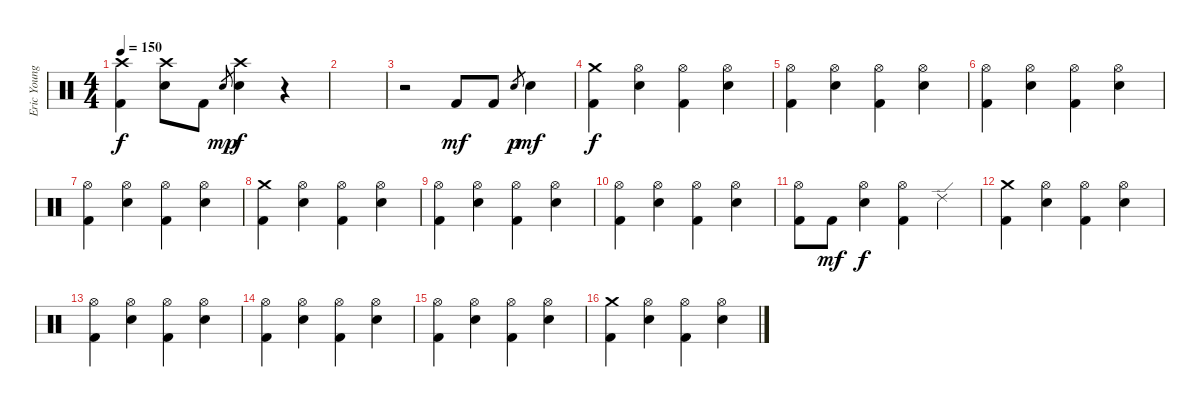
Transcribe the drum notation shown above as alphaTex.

\track ("Eric Young" "Eric Young") {instrument percussion}
\staff {score}
\articulation defaults
\ts (4 4)
\tempo 150
\clef neutral
\ks c
("Crash high (hit)" "Kick (hit) 2").4{dy f} ("Crash high (hit)" "Electric Snare (hit)").8 "Kick (hit) 2".8 "Electric Snare (hit)".8{gr dy mp} ("Crash high (hit)" "Electric Snare (hit)").4{dy f} r.4 |
|
r.2 "Kick (hit) 2".8{dy mf} "Kick (hit) 2".8 "Electric Snare (hit)".8{gr dy p} "Electric Snare (hit)".4{dy mf} |
("Crash medium (hit)" "Kick (hit) 2").4{dy f} ("Hi-Hat (open)" "Electric Snare (hit)").4 ("Hi-Hat (open)" "Kick (hit) 2").4 ("Hi-Hat (open)" "Electric Snare (hit)").4 |
("Hi-Hat (open)" "Kick (hit) 2").4 ("Hi-Hat (open)" "Electric Snare (hit)").4 ("Hi-Hat (open)" "Kick (hit) 2").4 ("Hi-Hat (open)" "Electric Snare (hit)").4 |
("Hi-Hat (open)" "Kick (hit) 2").4 ("Hi-Hat (open)" "Electric Snare (hit)").4 ("Hi-Hat (open)" "Kick (hit) 2").4 ("Hi-Hat (open)" "Electric Snare (hit)").4 |
("Hi-Hat (open)" "Kick (hit) 2").4 ("Hi-Hat (open)" "Electric Snare (hit)").4 ("Hi-Hat (open)" "Kick (hit) 2").4 ("Hi-Hat (open)" "Electric Snare (hit)").4 |
("Crash medium (hit)" "Kick (hit) 2").4 ("Hi-Hat (open)" "Electric Snare (hit)").4 ("Hi-Hat (open)" "Kick (hit) 2").4 ("Hi-Hat (open)" "Electric Snare (hit)").4 |
("Hi-Hat (open)" "Kick (hit) 2").4 ("Hi-Hat (open)" "Electric Snare (hit)").4 ("Hi-Hat (open)" "Kick (hit) 2").4 ("Hi-Hat (open)" "Electric Snare (hit)").4 |
("Hi-Hat (open)" "Kick (hit) 2").4 ("Hi-Hat (open)" "Electric Snare (hit)").4 ("Hi-Hat (open)" "Kick (hit) 2").4 ("Hi-Hat (open)" "Electric Snare (hit)").4 |
("Hi-Hat (open)" "Kick (hit) 2").8 "Kick (hit) 2".8{dy mf} ("Hi-Hat (open)" "Electric Snare (hit)").4{dy f} ("Hi-Hat (open)" "Kick (hit) 2").4 "Ride (edge) 2".4 |
("Crash medium (hit)" "Kick (hit) 2").4 ("Hi-Hat (open)" "Electric Snare (hit)").4 ("Hi-Hat (open)" "Kick (hit) 2").4 ("Hi-Hat (open)" "Electric Snare (hit)").4 |
("Hi-Hat (open)" "Kick (hit) 2").4 ("Hi-Hat (open)" "Electric Snare (hit)").4 ("Hi-Hat (open)" "Kick (hit) 2").4 ("Hi-Hat (open)" "Electric Snare (hit)").4 |
("Hi-Hat (open)" "Kick (hit) 2").4 ("Hi-Hat (open)" "Electric Snare (hit)").4 ("Hi-Hat (open)" "Kick (hit) 2").4 ("Hi-Hat (open)" "Electric Snare (hit)").4 |
("Hi-Hat (open)" "Kick (hit) 2").4 ("Hi-Hat (open)" "Electric Snare (hit)").4 ("Hi-Hat (open)" "Kick (hit) 2").4 ("Hi-Hat (open)" "Electric Snare (hit)").4 |
("Crash medium (hit)" "Kick (hit) 2").4 ("Hi-Hat (open)" "Electric Snare (hit)").4 ("Hi-Hat (open)" "Kick (hit) 2").4 ("Hi-Hat (open)" "Electric Snare (hit)").4
